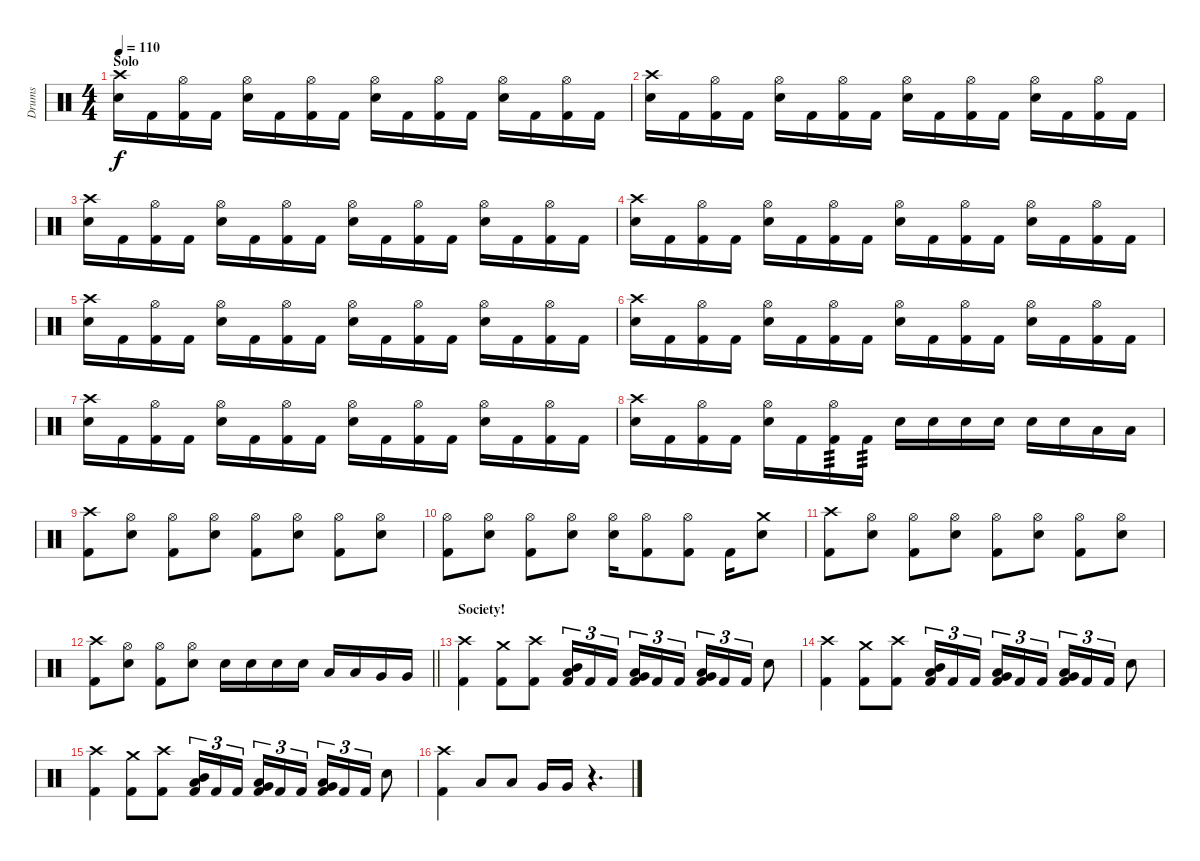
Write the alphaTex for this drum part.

\track ("Drums" "Drums") {instrument percussion}
\staff {score}
\articulation defaults
\ts (4 4)
\section ("" "Solo")
\tempo 110
\clef neutral
\ks c
("Crash high (hit)" "Electric Snare (hit)").16{dy f} "Kick (hit) 2".16 ("Hi-Hat (open)" "Kick (hit) 2").16 "Kick (hit) 2".16 ("Hi-Hat (open)" "Electric Snare (hit)").16 "Kick (hit) 2".16 ("Hi-Hat (open)" "Kick (hit) 2").16 "Kick (hit) 2".16 ("Hi-Hat (open)" "Electric Snare (hit)").16 "Kick (hit) 2".16 ("Hi-Hat (open)" "Kick (hit) 2").16 "Kick (hit) 2".16 ("Hi-Hat (open)" "Electric Snare (hit)").16 "Kick (hit) 2".16 ("Hi-Hat (open)" "Kick (hit) 2").16 "Kick (hit) 2".16 |
("Crash high (hit)" "Electric Snare (hit)").16 "Kick (hit) 2".16 ("Hi-Hat (open)" "Kick (hit) 2").16 "Kick (hit) 2".16 ("Hi-Hat (open)" "Electric Snare (hit)").16 "Kick (hit) 2".16 ("Hi-Hat (open)" "Kick (hit) 2").16 "Kick (hit) 2".16 ("Hi-Hat (open)" "Electric Snare (hit)").16 "Kick (hit) 2".16 ("Hi-Hat (open)" "Kick (hit) 2").16 "Kick (hit) 2".16 ("Hi-Hat (open)" "Electric Snare (hit)").16 "Kick (hit) 2".16 ("Hi-Hat (open)" "Kick (hit) 2").16 "Kick (hit) 2".16 |
("Crash high (hit)" "Electric Snare (hit)").16 "Kick (hit) 2".16 ("Hi-Hat (open)" "Kick (hit) 2").16 "Kick (hit) 2".16 ("Hi-Hat (open)" "Electric Snare (hit)").16 "Kick (hit) 2".16 ("Hi-Hat (open)" "Kick (hit) 2").16 "Kick (hit) 2".16 ("Hi-Hat (open)" "Electric Snare (hit)").16 "Kick (hit) 2".16 ("Hi-Hat (open)" "Kick (hit) 2").16 "Kick (hit) 2".16 ("Hi-Hat (open)" "Electric Snare (hit)").16 "Kick (hit) 2".16 ("Hi-Hat (open)" "Kick (hit) 2").16 "Kick (hit) 2".16 |
("Crash high (hit)" "Electric Snare (hit)").16 "Kick (hit) 2".16 ("Hi-Hat (open)" "Kick (hit) 2").16 "Kick (hit) 2".16 ("Hi-Hat (open)" "Electric Snare (hit)").16 "Kick (hit) 2".16 ("Hi-Hat (open)" "Kick (hit) 2").16 "Kick (hit) 2".16 ("Hi-Hat (open)" "Electric Snare (hit)").16 "Kick (hit) 2".16 ("Hi-Hat (open)" "Kick (hit) 2").16 "Kick (hit) 2".16 ("Hi-Hat (open)" "Electric Snare (hit)").16 "Kick (hit) 2".16 ("Hi-Hat (open)" "Kick (hit) 2").16 "Kick (hit) 2".16 |
("Crash high (hit)" "Electric Snare (hit)").16 "Kick (hit) 2".16 ("Hi-Hat (open)" "Kick (hit) 2").16 "Kick (hit) 2".16 ("Hi-Hat (open)" "Electric Snare (hit)").16 "Kick (hit) 2".16 ("Hi-Hat (open)" "Kick (hit) 2").16 "Kick (hit) 2".16 ("Hi-Hat (open)" "Electric Snare (hit)").16 "Kick (hit) 2".16 ("Hi-Hat (open)" "Kick (hit) 2").16 "Kick (hit) 2".16 ("Hi-Hat (open)" "Electric Snare (hit)").16 "Kick (hit) 2".16 ("Hi-Hat (open)" "Kick (hit) 2").16 "Kick (hit) 2".16 |
("Crash high (hit)" "Electric Snare (hit)").16 "Kick (hit) 2".16 ("Hi-Hat (open)" "Kick (hit) 2").16 "Kick (hit) 2".16 ("Hi-Hat (open)" "Electric Snare (hit)").16 "Kick (hit) 2".16 ("Hi-Hat (open)" "Kick (hit) 2").16 "Kick (hit) 2".16 ("Hi-Hat (open)" "Electric Snare (hit)").16 "Kick (hit) 2".16 ("Hi-Hat (open)" "Kick (hit) 2").16 "Kick (hit) 2".16 ("Hi-Hat (open)" "Electric Snare (hit)").16 "Kick (hit) 2".16 ("Hi-Hat (open)" "Kick (hit) 2").16 "Kick (hit) 2".16 |
("Crash high (hit)" "Electric Snare (hit)").16 "Kick (hit) 2".16 ("Hi-Hat (open)" "Kick (hit) 2").16 "Kick (hit) 2".16 ("Hi-Hat (open)" "Electric Snare (hit)").16 "Kick (hit) 2".16 ("Hi-Hat (open)" "Kick (hit) 2").16 "Kick (hit) 2".16 ("Hi-Hat (open)" "Electric Snare (hit)").16 "Kick (hit) 2".16 ("Hi-Hat (open)" "Kick (hit) 2").16 "Kick (hit) 2".16 ("Hi-Hat (open)" "Electric Snare (hit)").16 "Kick (hit) 2".16 ("Hi-Hat (open)" "Kick (hit) 2").16 "Kick (hit) 2".16 |
("Crash high (hit)" "Electric Snare (hit)").16 "Kick (hit) 2".16 ("Hi-Hat (open)" "Kick (hit) 2").16 "Kick (hit) 2".16 ("Hi-Hat (open)" "Electric Snare (hit)").16 "Kick (hit) 2".16 ("Hi-Hat (open)" "Kick (hit) 2").16{tp 3} "Kick (hit) 2".16{tp 3} "Electric Snare (hit)".16 "Electric Snare (hit)".16 "Electric Snare (hit)".16 "Electric Snare (hit)".16 "Electric Snare (hit)".16 "Electric Snare (hit)".16 "Low Tom (hit)".16 "Low Tom (hit)".16 |
("Crash high (hit)" "Kick (hit) 2").8 ("Hi-Hat (open)" "Electric Snare (hit)").8 ("Hi-Hat (open)" "Kick (hit) 2").8 ("Hi-Hat (open)" "Electric Snare (hit)").8 ("Hi-Hat (open)" "Kick (hit) 2").8 ("Hi-Hat (open)" "Electric Snare (hit)").8 ("Hi-Hat (open)" "Kick (hit) 2").8 ("Hi-Hat (open)" "Electric Snare (hit)").8 |
("Hi-Hat (open)" "Kick (hit) 2").8 ("Hi-Hat (open)" "Electric Snare (hit)").8 ("Hi-Hat (open)" "Kick (hit) 2").8 ("Hi-Hat (open)" "Electric Snare (hit)").8 ("Hi-Hat (open)" "Electric Snare (hit)").16 ("Hi-Hat (open)" "Kick (hit) 2").8 ("Hi-Hat (open)" "Kick (hit) 2").8 "Kick (hit) 2".16 ("Crash medium (hit)" "Electric Snare (hit)").8 |
("Crash high (hit)" "Kick (hit) 2").8 ("Hi-Hat (open)" "Electric Snare (hit)").8 ("Hi-Hat (open)" "Kick (hit) 2").8 ("Hi-Hat (open)" "Electric Snare (hit)").8 ("Hi-Hat (open)" "Kick (hit) 2").8 ("Hi-Hat (open)" "Electric Snare (hit)").8 ("Hi-Hat (open)" "Kick (hit) 2").8 ("Hi-Hat (open)" "Electric Snare (hit)").8 |
\barLineRight lightlight
("Crash high (hit)" "Kick (hit) 2").8 ("Hi-Hat (open)" "Electric Snare (hit)").8 ("Hi-Hat (open)" "Kick (hit) 2").8 ("Hi-Hat (open)" "Electric Snare (hit)").8 "Electric Snare (hit)".16 "Electric Snare (hit)".16 "Electric Snare (hit)".16 "Electric Snare (hit)".16 "Low Tom (hit)".16 "Low Tom (hit)".16 "Very Low Tom (hit)".16 "Very Low Tom (hit)".16 |
\section ("" "Society!")
("Crash high (hit)" "Kick (hit) 2").4 ("Crash medium (hit)" "Kick (hit) 2").8 ("Crash high (hit)" "Kick (hit) 2").8 ("Low Tom (hit)" "Mid Tom (hit)" "Kick (hit) 2").16{tu (3 2)} "Kick (hit) 2".16{tu (3 2)} "Kick (hit) 2".16{tu (3 2) beam splitsecondary} ("Very Low Tom (hit)" "Low Tom (hit)" "Kick (hit) 2").16{tu (3 2)} "Kick (hit) 2".16{tu (3 2)} "Kick (hit) 2".16{tu (3 2)} ("Low Floor Tom (hit)" "Very Low Tom (hit)" "Kick (hit) 2").16{tu (3 2)} "Kick (hit) 2".16{tu (3 2)} "Kick (hit) 2".16{tu (3 2)} "Electric Snare (hit)".8 |
("Crash high (hit)" "Kick (hit) 2").4 ("Crash medium (hit)" "Kick (hit) 2").8 ("Crash high (hit)" "Kick (hit) 2").8 ("Low Tom (hit)" "Mid Tom (hit)" "Kick (hit) 2").16{tu (3 2)} "Kick (hit) 2".16{tu (3 2)} "Kick (hit) 2".16{tu (3 2) beam splitsecondary} ("Very Low Tom (hit)" "Low Tom (hit)" "Kick (hit) 2").16{tu (3 2)} "Kick (hit) 2".16{tu (3 2)} "Kick (hit) 2".16{tu (3 2)} ("Low Floor Tom (hit)" "Very Low Tom (hit)" "Kick (hit) 2").16{tu (3 2)} "Kick (hit) 2".16{tu (3 2)} "Kick (hit) 2".16{tu (3 2)} "Electric Snare (hit)".8 |
("Crash high (hit)" "Kick (hit) 2").4 ("Crash medium (hit)" "Kick (hit) 2").8 ("Crash high (hit)" "Kick (hit) 2").8 ("Low Tom (hit)" "Mid Tom (hit)" "Kick (hit) 2").16{tu (3 2)} "Kick (hit) 2".16{tu (3 2)} "Kick (hit) 2".16{tu (3 2) beam splitsecondary} ("Very Low Tom (hit)" "Low Tom (hit)" "Kick (hit) 2").16{tu (3 2)} "Kick (hit) 2".16{tu (3 2)} "Kick (hit) 2".16{tu (3 2)} ("Low Floor Tom (hit)" "Very Low Tom (hit)" "Kick (hit) 2").16{tu (3 2)} "Kick (hit) 2".16{tu (3 2)} "Kick (hit) 2".16{tu (3 2)} "Electric Snare (hit)".8 |
("Crash high (hit)" "Kick (hit) 2").4 "Low Tom (hit)".8 "Low Tom (hit)".8 "Very Low Tom (hit)".16 "Very Low Tom (hit)".16 r.4{d}
